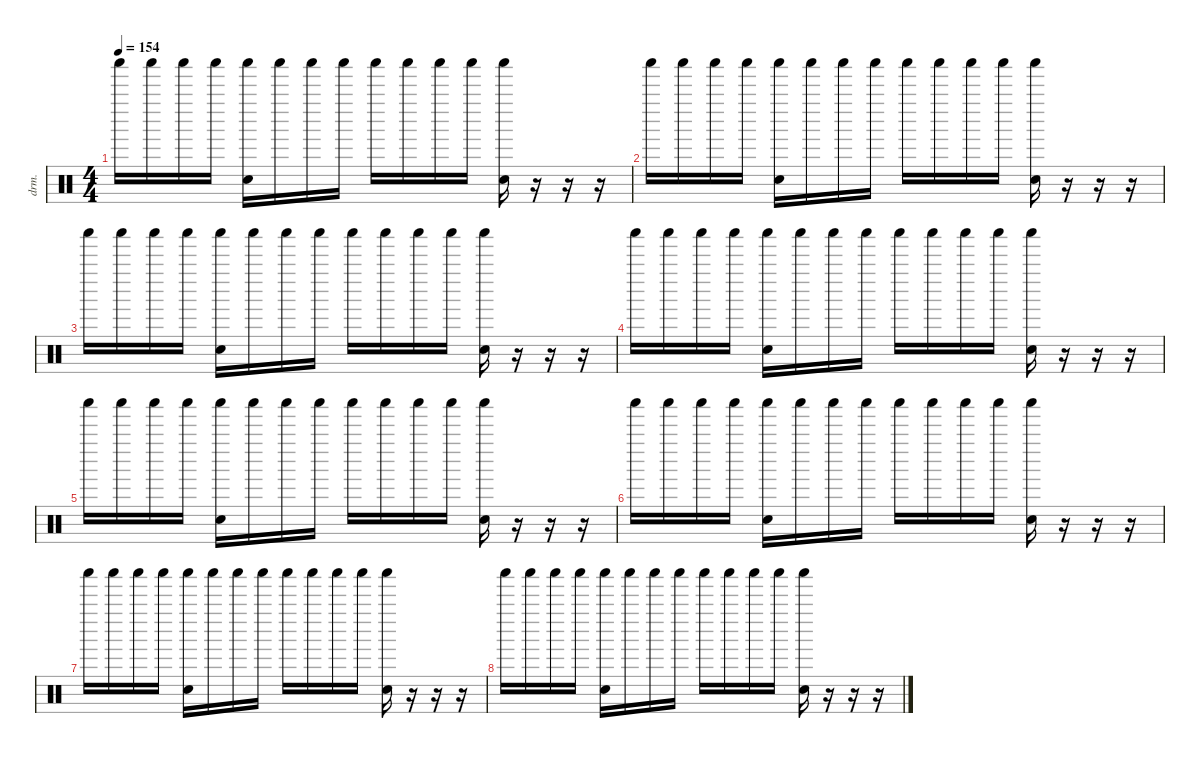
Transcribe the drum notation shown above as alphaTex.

\defaultSystemsLayout 4
\hideDynamics
\bracketExtendMode nobrackets
\otherSystemsTrackNameOrientation horizontal
\track ("Percussion" "drm.") {instrument percussion}
\staff {score}
\articulation defaults
\ts (4 4)
\tempo 154
\clef neutral
\ks c "Shaker (hit)".16{dy f beam Down} "Shaker (hit)".16{beam Down} "Shaker (hit)".16{beam Down} "Shaker (hit)".16{beam Down}
("Shaker (hit)" "Snare (hit) 2").16{beam Down} "Shaker (hit)".16{beam Down} "Shaker (hit)".16{beam Down} "Shaker (hit)".16{beam Down} "Shaker (hit)".16{beam Down} "Shaker (hit)".16{beam Down} "Shaker (hit)".16{beam Down} "Shaker (hit)".16{beam Down} ("Shaker (hit)" "Snare (hit) 2").16{beam Down} r.16{beam Down} r.16{beam Down} r.16{beam Down} |
"Shaker (hit)".16{beam Down} "Shaker (hit)".16{beam Down} "Shaker (hit)".16{beam Down} "Shaker (hit)".16{beam Down} ("Shaker (hit)" "Snare (hit) 2").16{beam Down} "Shaker (hit)".16{beam Down} "Shaker (hit)".16{beam Down} "Shaker (hit)".16{beam Down} "Shaker (hit)".16{beam Down} "Shaker (hit)".16{beam Down} "Shaker (hit)".16{beam Down} "Shaker (hit)".16{beam Down} ("Shaker (hit)" "Snare (hit) 2").16{beam Down} r.16{beam Down} r.16{beam Down} r.16{beam Down} |
"Shaker (hit)".16{beam Down} "Shaker (hit)".16{beam Down} "Shaker (hit)".16{beam Down} "Shaker (hit)".16{beam Down} ("Shaker (hit)" "Snare (hit) 2").16{beam Down} "Shaker (hit)".16{beam Down} "Shaker (hit)".16{beam Down} "Shaker (hit)".16{beam Down} "Shaker (hit)".16{beam Down} "Shaker (hit)".16{beam Down} "Shaker (hit)".16{beam Down} "Shaker (hit)".16{beam Down} ("Shaker (hit)" "Snare (hit) 2").16{beam Down} r.16{beam Down} r.16{beam Down} r.16{beam Down} |
"Shaker (hit)".16{beam Down} "Shaker (hit)".16{beam Down} "Shaker (hit)".16{beam Down} "Shaker (hit)".16{beam Down} ("Shaker (hit)" "Snare (hit) 2").16{beam Down} "Shaker (hit)".16{beam Down} "Shaker (hit)".16{beam Down} "Shaker (hit)".16{beam Down} "Shaker (hit)".16{beam Down} "Shaker (hit)".16{beam Down} "Shaker (hit)".16{beam Down} "Shaker (hit)".16{beam Down} ("Shaker (hit)" "Snare (hit) 2").16{beam Down} r.16{beam Down} r.16{beam Down} r.16{beam Down} |
"Shaker (hit)".16{beam Down} "Shaker (hit)".16{beam Down} "Shaker (hit)".16{beam Down} "Shaker (hit)".16{beam Down} ("Shaker (hit)" "Snare (hit) 2").16{beam Down} "Shaker (hit)".16{beam Down} "Shaker (hit)".16{beam Down} "Shaker (hit)".16{beam Down} "Shaker (hit)".16{beam Down} "Shaker (hit)".16{beam Down} "Shaker (hit)".16{beam Down} "Shaker (hit)".16{beam Down} ("Shaker (hit)" "Snare (hit) 2").16{beam Down} r.16{beam Down} r.16{beam Down} r.16{beam Down} |
"Shaker (hit)".16{beam Down} "Shaker (hit)".16{beam Down} "Shaker (hit)".16{beam Down} "Shaker (hit)".16{beam Down} ("Shaker (hit)" "Snare (hit) 2").16{beam Down} "Shaker (hit)".16{beam Down} "Shaker (hit)".16{beam Down} "Shaker (hit)".16{beam Down} "Shaker (hit)".16{beam Down} "Shaker (hit)".16{beam Down} "Shaker (hit)".16{beam Down} "Shaker (hit)".16{beam Down} ("Shaker (hit)" "Snare (hit) 2").16{beam Down} r.16{beam Down} r.16{beam Down} r.16{beam Down} |
"Shaker (hit)".16{beam Down} "Shaker (hit)".16{beam Down} "Shaker (hit)".16{beam Down} "Shaker (hit)".16{beam Down} ("Shaker (hit)" "Snare (hit) 2").16{beam Down} "Shaker (hit)".16{beam Down} "Shaker (hit)".16{beam Down} "Shaker (hit)".16{beam Down} "Shaker (hit)".16{beam Down} "Shaker (hit)".16{beam Down} "Shaker (hit)".16{beam Down} "Shaker (hit)".16{beam Down} ("Shaker (hit)" "Snare (hit) 2").16{beam Down} r.16{beam Down} r.16{beam Down} r.16{beam Down} |
"Shaker (hit)".16{beam Down} "Shaker (hit)".16{beam Down} "Shaker (hit)".16{beam Down} "Shaker (hit)".16{beam Down} ("Shaker (hit)" "Snare (hit) 2").16{beam Down} "Shaker (hit)".16{beam Down} "Shaker (hit)".16{beam Down} "Shaker (hit)".16{beam Down} "Shaker (hit)".16{beam Down} "Shaker (hit)".16{beam Down} "Shaker (hit)".16{beam Down} "Shaker (hit)".16{beam Down} ("Shaker (hit)" "Snare (hit) 2").16{beam Down} r.16{beam Down} r.16{beam Down} r.16{beam Down}
